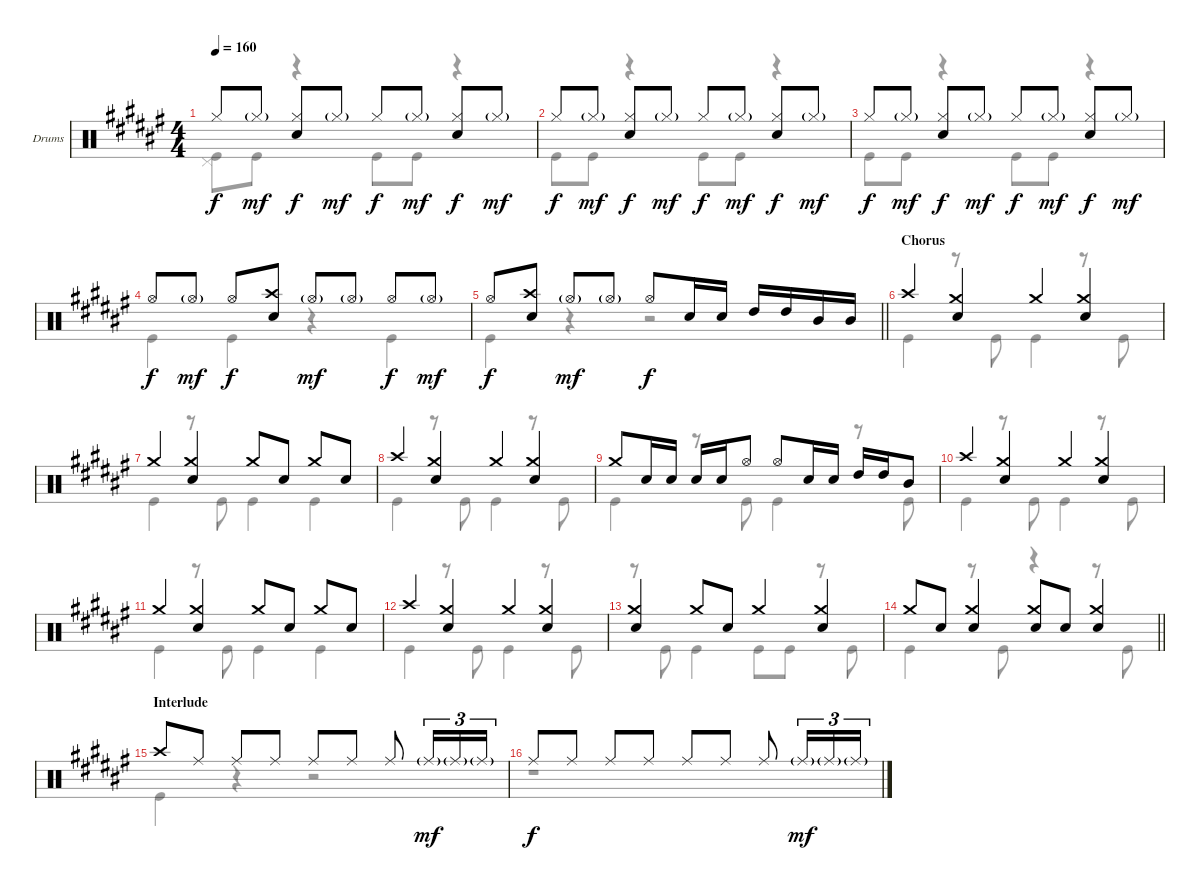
\bracketExtendMode groupsimilarinstruments
\firstSystemTrackNameOrientation horizontal
\otherSystemsTrackNameOrientation horizontal
\track ("Drumkit" "Drums") {instrument percussion}
\staff {score}
\articulation defaults
\voice
\ts (4 4)
\tempo 160
\clef neutral
\ks d#minor "Hi-Hat (closed)".8{dy f} "Hi-Hat (closed)"{g}.8{dy mf}
("Hi-Hat (closed)" "Snare (hit) 2").8{dy f} "Hi-Hat (closed)"{g}.8{dy mf} "Hi-Hat (closed)".8{dy f} "Hi-Hat (closed)"{g}.8{dy mf} ("Hi-Hat (closed)" "Snare (hit) 2").8{dy f} "Hi-Hat (closed)"{g}.8{dy mf} |
"Hi-Hat (closed)".8{dy f} "Hi-Hat (closed)"{g}.8{dy mf} ("Hi-Hat (closed)" "Snare (hit) 2").8{dy f} "Hi-Hat (closed)"{g}.8{dy mf} "Hi-Hat (closed)".8{dy f} "Hi-Hat (closed)"{g}.8{dy mf} ("Hi-Hat (closed)" "Snare (hit) 2").8{dy f} "Hi-Hat (closed)"{g}.8{dy mf} |
"Hi-Hat (closed)".8{dy f} "Hi-Hat (closed)"{g}.8{dy mf} ("Hi-Hat (closed)" "Snare (hit) 2").8{dy f} "Hi-Hat (closed)"{g}.8{dy mf} "Hi-Hat (closed)".8{dy f} "Hi-Hat (closed)"{g}.8{dy mf} ("Hi-Hat (closed)" "Snare (hit) 2").8{dy f} "Hi-Hat (closed)"{g}.8{dy mf} |
"Hi-Hat (open)".8{dy f} "Hi-Hat (open)"{g}.8{dy mf} "Hi-Hat (open)".8{dy f} ("Crash high (hit)" "Snare (hit) 2").8 "Hi-Hat (open)"{g}.8{dy mf} "Hi-Hat (open)"{g}.8 "Hi-Hat (open)".8{dy f} "Hi-Hat (open)"{g}.8{dy mf} |
\barLineRight lightlight "Hi-Hat (open)".8{dy f}
("Crash high (hit)" "Snare (hit) 2").8 "Hi-Hat (open)"{g}.8{dy mf} "Hi-Hat (open)"{g}.8 "Hi-Hat (open)".8{dy f} "Snare (hit) 2".16 "Snare (hit) 2".16 "High Tom (hit)".16 "High Tom (hit)".16 "Mid Tom (hit)".16 "Mid Tom (hit)".16 |
\section ("" "Chorus")
"Crash high (hit)".4 ("Crash medium (hit)" "Snare (hit) 2").4 "Crash medium (hit)".4 ("Crash medium (hit)" "Snare (hit) 2").4 |
"Crash medium (hit)".4 ("Crash medium (hit)" "Snare (hit) 2").4 "Crash medium (hit)".8 "Snare (hit) 2".8 "Crash medium (hit)".8 "Snare (hit) 2".8 |
"Crash high (hit)".4 ("Crash medium (hit)" "Snare (hit) 2").4 "Crash medium (hit)".4 ("Crash medium (hit)" "Snare (hit) 2").4 |
"Crash medium (hit)".8 "Snare (hit) 2".16 "Snare (hit) 2".16 "Snare (hit) 2".16 "Snare (hit) 2".16 "Hi-Hat (open)".8 "Hi-Hat (open)".8 "Snare (hit) 2".16 "Snare (hit) 2".16 "High Tom (hit)".16 "High Tom (hit)".16 "Mid Tom (hit)".8 |
"Crash high (hit)".4 ("Crash medium (hit)" "Snare (hit) 2").4 "Crash medium (hit)".4 ("Crash medium (hit)" "Snare (hit) 2").4 |
"Crash medium (hit)".4 ("Crash medium (hit)" "Snare (hit) 2").4 "Crash medium (hit)".8 "Snare (hit) 2".8 "Crash medium (hit)".8 "Snare (hit) 2".8 |
"Crash high (hit)".4 ("Crash medium (hit)" "Snare (hit) 2").4 "Crash medium (hit)".4 ("Crash medium (hit)" "Snare (hit) 2").4 |
("Crash medium (hit)" "Snare (hit) 2").4 "Crash medium (hit)".8 "Snare (hit) 2".8 "Crash medium (hit)".4 ("Crash medium (hit)" "Snare (hit) 2").4 |
\barLineRight lightlight "Crash medium (hit)".8 "Snare (hit) 2".8
("Crash medium (hit)" "Snare (hit) 2").4 ("Crash medium (hit)" "Snare (hit) 2").8 "Snare (hit) 2".8 ("Crash medium (hit)" "Snare (hit) 2").4 |
\section ("" "Interlude")
"Crash high (hit)".8 "Ride (middle)".8 "Ride (middle)".8 "Ride (middle)".8 "Ride (middle)".8 "Ride (middle)".8 "Ride (middle)".8 "Ride (middle)"{g}.16{tu (3 2) dy mf} "Ride (middle)"{g}.16{tu (3 2)} "Ride (middle)"{g}.16{tu (3 2)} |
"Ride (middle)".8{dy f} "Ride (middle)".8 "Ride (middle)".8 "Ride (middle)".8 "Ride (middle)".8 "Ride (middle)".8 "Ride (middle)".8 "Ride (middle)"{g}.16{tu (3 2) dy mf} "Ride (middle)"{g}.16{tu (3 2)} "Ride (middle)"{g}.16{tu (3 2)}
\voice
\clef neutral
\ottava regular
\simile none
\ks d#minor
("Pedal Hi-Hat (hit)" "Kick (hit)").8{dy f} "Kick (hit)".8 r.4 "Kick (hit)".8 "Kick (hit)".8 r.4 |
"Kick (hit)".8 "Kick (hit)".8 r.4 "Kick (hit)".8 "Kick (hit)".8 r.4 |
"Kick (hit)".8 "Kick (hit)".8 r.4 "Kick (hit)".8 "Kick (hit)".8 r.4 |
"Kick (hit)".4 "Kick (hit)".4 r.4 "Kick (hit)".4 |
\barLineRight lightlight "Kick (hit)".4
r.4 r.2 |
"Kick (hit)".4 r.8 "Kick (hit)".8 "Kick (hit)".4 r.8 "Kick (hit)".8 |
"Kick (hit)".4 r.8 "Kick (hit)".8 "Kick (hit)".4 "Kick (hit)".4 |
"Kick (hit)".4 r.8 "Kick (hit)".8 "Kick (hit)".4 r.8 "Kick (hit)".8 |
"Kick (hit)".4 r.8 "Kick (hit)".8 "Kick (hit)".4 r.8 "Kick (hit)".8 |
"Kick (hit)".4 r.8 "Kick (hit)".8 "Kick (hit)".4 r.8 "Kick (hit)".8 |
"Kick (hit)".4 r.8 "Kick (hit)".8 "Kick (hit)".4 "Kick (hit)".4 |
"Kick (hit)".4 r.8 "Kick (hit)".8 "Kick (hit)".4 r.8 "Kick (hit)".8 |
r.8 "Kick (hit)".8 "Kick (hit)".4 "Kick (hit)".8 "Kick (hit)".8 r.8 "Kick (hit)".8 |
\barLineRight lightlight "Kick (hit)".4
r.8 "Kick (hit)".8 r.4 r.8 "Kick (hit)".8 |
"Kick (hit)".4 r.4 r.2 |
r.1
